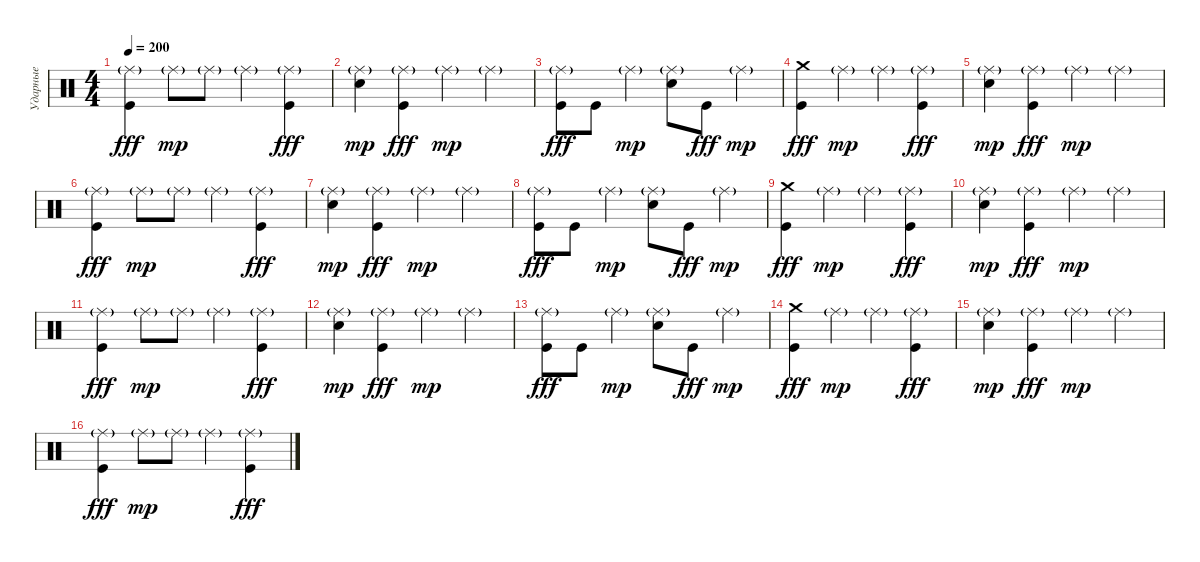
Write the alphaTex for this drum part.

\track ("Ударные" "Ударные") {instrument percussion}
\staff {score}
\articulation defaults
\ts (4 4)
\tempo 200
\clef neutral
\ks c
("Ride (middle)"{g} "Kick (hit)").4{dy fff} "Ride (middle)"{g}.8{dy mp} "Ride (middle)"{g}.8 "Ride (middle)"{g}.4 ("Ride (middle)"{g} "Kick (hit)").4{dy fff} |
("Ride (middle)"{g} "Electric Snare (hit)").4{dy mp} ("Ride (middle)"{g} "Kick (hit)").4{dy fff} "Ride (middle)"{g}.4{dy mp} "Ride (middle)"{g}.4 |
("Ride (middle)"{g} "Kick (hit)").8{dy fff} "Kick (hit)".8 "Ride (middle)"{g}.4{dy mp} ("Ride (middle)"{g} "Electric Snare (hit)").8 "Kick (hit)".8{dy fff} "Ride (middle)"{g}.4{dy mp} |
("Crash medium (hit)" "Kick (hit)").4{dy fff volume 13} "Ride (middle)"{g}.4{dy mp} "Ride (middle)"{g}.4 ("Ride (middle)"{g} "Kick (hit)").4{dy fff} |
("Ride (middle)"{g} "Electric Snare (hit)").4{dy mp} ("Ride (middle)"{g} "Kick (hit)").4{dy fff} "Ride (middle)"{g}.4{dy mp} "Ride (middle)"{g}.4 |
("Ride (middle)"{g} "Kick (hit)").4{dy fff} "Ride (middle)"{g}.8{dy mp} "Ride (middle)"{g}.8 "Ride (middle)"{g}.4 ("Ride (middle)"{g} "Kick (hit)").4{dy fff} |
("Ride (middle)"{g} "Electric Snare (hit)").4{dy mp} ("Ride (middle)"{g} "Kick (hit)").4{dy fff} "Ride (middle)"{g}.4{dy mp} "Ride (middle)"{g}.4 |
("Ride (middle)"{g} "Kick (hit)").8{dy fff} "Kick (hit)".8 "Ride (middle)"{g}.4{dy mp} ("Ride (middle)"{g} "Electric Snare (hit)").8 "Kick (hit)".8{dy fff} "Ride (middle)"{g}.4{dy mp} |
("Crash medium (hit)" "Kick (hit)").4{dy fff volume 13} "Ride (middle)"{g}.4{dy mp} "Ride (middle)"{g}.4 ("Ride (middle)"{g} "Kick (hit)").4{dy fff} |
("Ride (middle)"{g} "Electric Snare (hit)").4{dy mp} ("Ride (middle)"{g} "Kick (hit)").4{dy fff} "Ride (middle)"{g}.4{dy mp} "Ride (middle)"{g}.4 |
("Ride (middle)"{g} "Kick (hit)").4{dy fff} "Ride (middle)"{g}.8{dy mp} "Ride (middle)"{g}.8 "Ride (middle)"{g}.4 ("Ride (middle)"{g} "Kick (hit)").4{dy fff} |
("Ride (middle)"{g} "Electric Snare (hit)").4{dy mp} ("Ride (middle)"{g} "Kick (hit)").4{dy fff} "Ride (middle)"{g}.4{dy mp} "Ride (middle)"{g}.4 |
("Ride (middle)"{g} "Kick (hit)").8{dy fff} "Kick (hit)".8 "Ride (middle)"{g}.4{dy mp} ("Ride (middle)"{g} "Electric Snare (hit)").8 "Kick (hit)".8{dy fff} "Ride (middle)"{g}.4{dy mp} |
("Crash medium (hit)" "Kick (hit)").4{dy fff volume 13} "Ride (middle)"{g}.4{dy mp} "Ride (middle)"{g}.4 ("Ride (middle)"{g} "Kick (hit)").4{dy fff} |
("Ride (middle)"{g} "Electric Snare (hit)").4{dy mp} ("Ride (middle)"{g} "Kick (hit)").4{dy fff} "Ride (middle)"{g}.4{dy mp} "Ride (middle)"{g}.4 |
("Ride (middle)"{g} "Kick (hit)").4{dy fff} "Ride (middle)"{g}.8{dy mp} "Ride (middle)"{g}.8 "Ride (middle)"{g}.4 ("Ride (middle)"{g} "Kick (hit)").4{dy fff}
